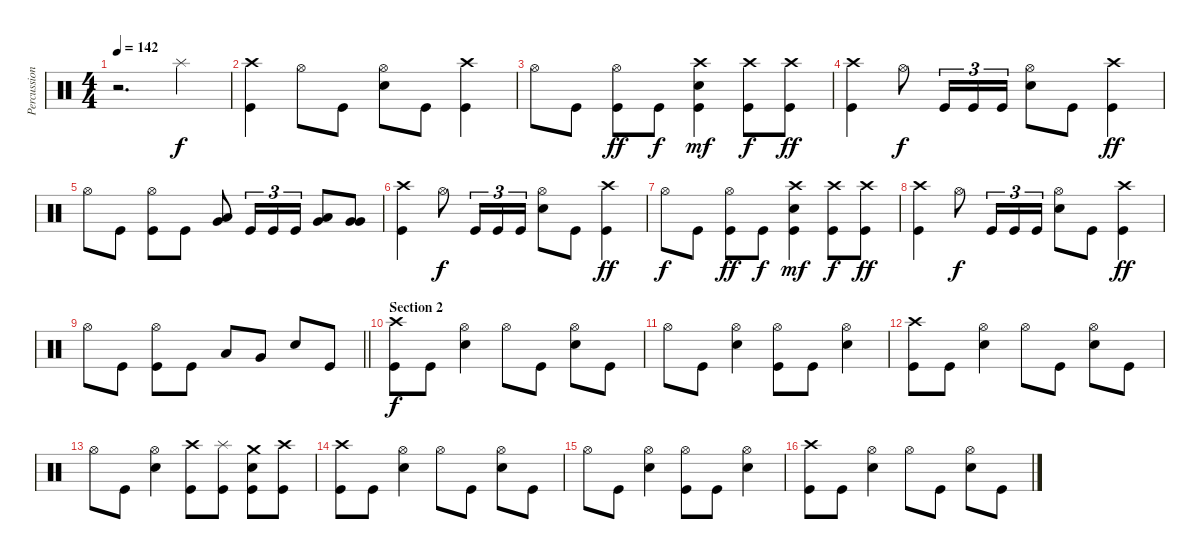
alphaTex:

\track ("Percussion" "Percussion") {instrument percussion}
\staff {score}
\articulation defaults
\ts (4 4)
\tempo 142
\clef neutral
\ks c
r.2{d dy f} "Splash (hit)".4 |
("Crash high (hit)" "Kick (hit)").4 "Hi-Hat (open)".8 "Kick (hit)".8 ("Snare (hit) 2" "Hi-Hat (open)").8 "Kick (hit)".8 ("Kick (hit)" "Crash high (hit)").4 |
"Hi-Hat (open)".8 "Kick (hit)".8 ("Hi-Hat (open)" "Kick (hit)").8{dy ff} "Kick (hit)".8{dy f} ("Snare (hit) 2" "Crash high (hit)" "Kick (hit)").4{dy mf} ("Crash high (hit)" "Kick (hit)").8{dy f} ("Crash high (hit)" "Kick (hit)").8{dy ff} |
("Crash high (hit)" "Kick (hit)").4 "Hi-Hat (open)".8{dy f} "Kick (hit)".16{tu (3 2)} "Kick (hit)".16{tu (3 2)} "Kick (hit)".16{tu (3 2)} ("Snare (hit) 2" "Hi-Hat (open)").8 "Kick (hit)".8 ("Kick (hit)" "Crash high (hit)").4{dy ff} |
"Hi-Hat (open)".8 "Kick (hit)".8 ("Hi-Hat (open)" "Kick (hit)").8 "Kick (hit)".8 ("Low Tom (hit)" "Very Low Tom (hit)").8 "Kick (hit)".16{tu (3 2)} "Kick (hit)".16{tu (3 2)} "Kick (hit)".16{tu (3 2)} ("Very Low Tom (hit)" "Low Floor Tom (hit)").8 ("Very Low Tom (hit)" "Very Low Tom (hit)").8 |
("Crash high (hit)" "Kick (hit)").4 "Hi-Hat (open)".8{dy f} "Kick (hit)".16{tu (3 2)} "Kick (hit)".16{tu (3 2)} "Kick (hit)".16{tu (3 2)} ("Snare (hit) 2" "Hi-Hat (open)").8 "Kick (hit)".8 ("Kick (hit)" "Crash high (hit)").4{dy ff} |
"Hi-Hat (open)".8{dy f} "Kick (hit)".8 ("Hi-Hat (open)" "Kick (hit)").8{dy ff} "Kick (hit)".8{dy f} ("Snare (hit) 2" "Crash high (hit)" "Kick (hit)").4{dy mf} ("Crash high (hit)" "Kick (hit)").8{dy f} ("Crash high (hit)" "Kick (hit)").8{dy ff} |
("Crash high (hit)" "Kick (hit)").4 "Hi-Hat (open)".8{dy f} "Kick (hit)".16{tu (3 2)} "Kick (hit)".16{tu (3 2)} "Kick (hit)".16{tu (3 2)} ("Snare (hit) 2" "Hi-Hat (open)").8 "Kick (hit)".8 ("Kick (hit)" "Crash high (hit)").4{dy ff} |
\barLineRight lightlight "Hi-Hat (open)".8 "Kick (hit)".8
("Hi-Hat (open)" "Kick (hit)").8 "Kick (hit)".8 "Low Tom (hit)".8 "Very Low Tom (hit)".8 "Snare (hit) 2".8 "Kick (hit)".8 |
\section ("" "Section 2")
("Crash high (hit)" "Kick (hit)").8{dy f} "Kick (hit)".8 ("Snare (hit) 2" "Hi-Hat (open)").4 "Hi-Hat (open)".8 "Kick (hit)".8 ("Snare (hit) 2" "Hi-Hat (open)").8 "Kick (hit)".8 |
"Hi-Hat (open)".8 "Kick (hit)".8 ("Snare (hit) 2" "Hi-Hat (open)").4 ("Kick (hit)" "Hi-Hat (open)").8 "Kick (hit)".8 ("Snare (hit) 2" "Hi-Hat (open)").4 |
("Crash high (hit)" "Kick (hit)").8 "Kick (hit)".8 ("Snare (hit) 2" "Hi-Hat (open)").4 "Hi-Hat (open)".8 "Kick (hit)".8 ("Snare (hit) 2" "Hi-Hat (open)").8 "Kick (hit)".8 |
"Hi-Hat (open)".8 "Kick (hit)".8 ("Snare (hit) 2" "Hi-Hat (open)").4 ("Crash high (hit)" "Kick (hit)").8 ("Splash (hit)" "Kick (hit)").8 ("Crash medium (hit)" "Kick (hit)" "Snare (hit) 2").8 ("Crash high (hit)" "Kick (hit)").8 |
("Crash high (hit)" "Kick (hit)").8 "Kick (hit)".8 ("Snare (hit) 2" "Hi-Hat (open)").4 "Hi-Hat (open)".8 "Kick (hit)".8 ("Snare (hit) 2" "Hi-Hat (open)").8 "Kick (hit)".8 |
"Hi-Hat (open)".8 "Kick (hit)".8 ("Snare (hit) 2" "Hi-Hat (open)").4 ("Kick (hit)" "Hi-Hat (open)").8 "Kick (hit)".8 ("Snare (hit) 2" "Hi-Hat (open)").4 |
("Crash high (hit)" "Kick (hit)").8 "Kick (hit)".8 ("Snare (hit) 2" "Hi-Hat (open)").4 "Hi-Hat (open)".8 "Kick (hit)".8 ("Snare (hit) 2" "Hi-Hat (open)").8 "Kick (hit)".8
